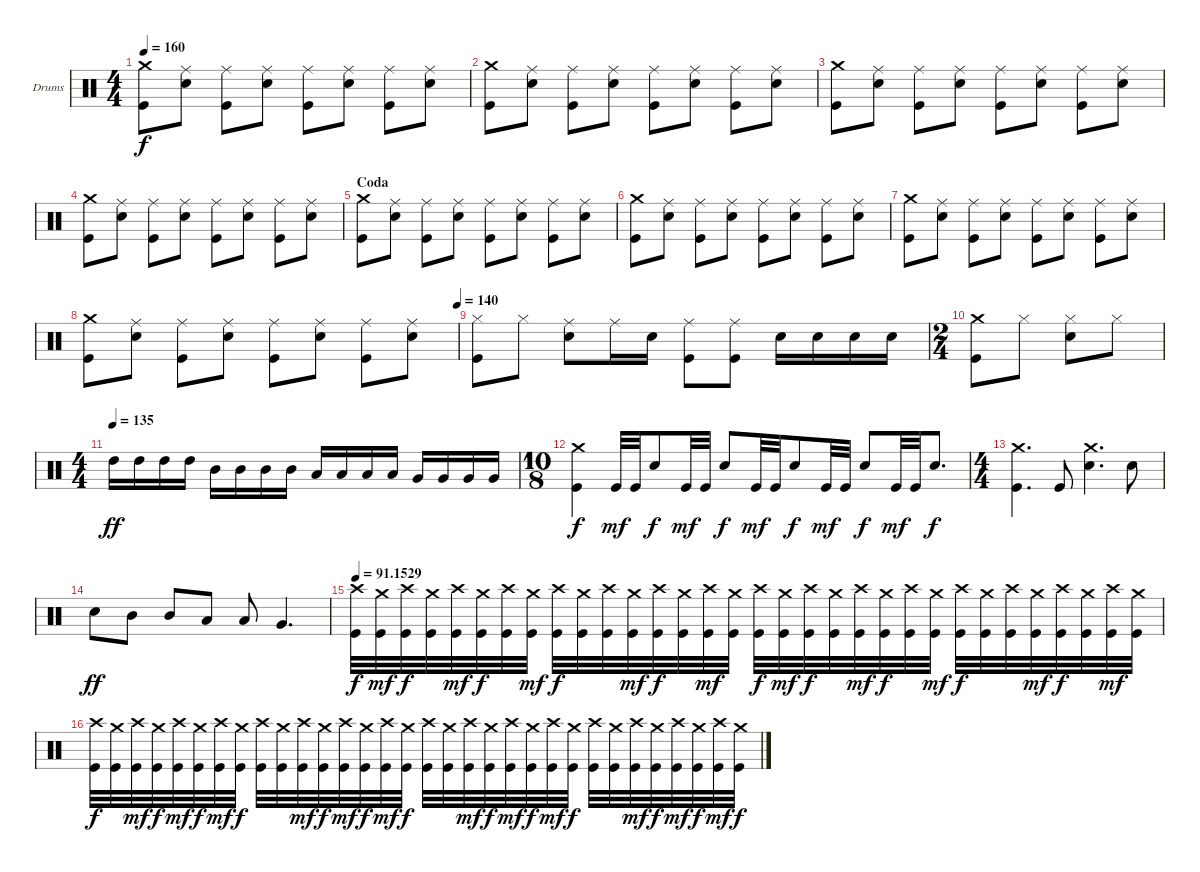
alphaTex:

\bracketExtendMode groupsimilarinstruments
\firstSystemTrackNameOrientation horizontal
\otherSystemsTrackNameOrientation horizontal
\track ("Drums" "Drums") {instrument percussion}
\staff {score}
\articulation defaults
\ts (4 4)
\tempo 160
\clef neutral
\ks c
("Crash medium (hit)" "Kick (hit)").8{dy f} ("Ride (middle)" "Snare (hit) 2").8 ("Ride (middle)" "Kick (hit)").8 ("Ride (middle)" "Snare (hit) 2").8 ("Ride (middle)" "Kick (hit)").8 ("Ride (middle)" "Snare (hit) 2").8 ("Ride (middle)" "Kick (hit)").8 ("Ride (middle)" "Snare (hit) 2").8 |
("Crash medium (hit)" "Kick (hit)").8 ("Ride (middle)" "Snare (hit) 2").8 ("Ride (middle)" "Kick (hit)").8 ("Ride (middle)" "Snare (hit) 2").8 ("Ride (middle)" "Kick (hit)").8 ("Ride (middle)" "Snare (hit) 2").8 ("Ride (middle)" "Kick (hit)").8 ("Ride (middle)" "Snare (hit) 2").8 |
("Crash medium (hit)" "Kick (hit)").8 ("Ride (middle)" "Snare (hit) 2").8 ("Ride (middle)" "Kick (hit)").8 ("Ride (middle)" "Snare (hit) 2").8 ("Ride (middle)" "Kick (hit)").8 ("Ride (middle)" "Snare (hit) 2").8 ("Ride (middle)" "Kick (hit)").8 ("Ride (middle)" "Snare (hit) 2").8 |
("Crash medium (hit)" "Kick (hit)").8 ("Ride (middle)" "Snare (hit) 2").8 ("Ride (middle)" "Kick (hit)").8 ("Ride (middle)" "Snare (hit) 2").8 ("Ride (middle)" "Kick (hit)").8 ("Ride (middle)" "Snare (hit) 2").8 ("Ride (middle)" "Kick (hit)").8 ("Ride (middle)" "Snare (hit) 2").8 |
\section ("" "Coda")
("Crash medium (hit)" "Kick (hit)").8 ("Ride (middle)" "Snare (hit) 2").8 ("Ride (middle)" "Kick (hit)").8 ("Ride (middle)" "Snare (hit) 2").8 ("Ride (middle)" "Kick (hit)").8 ("Ride (middle)" "Snare (hit) 2").8 ("Ride (middle)" "Kick (hit)").8 ("Ride (middle)" "Snare (hit) 2").8 |
("Crash medium (hit)" "Kick (hit)").8 ("Ride (middle)" "Snare (hit) 2").8 ("Ride (middle)" "Kick (hit)").8 ("Ride (middle)" "Snare (hit) 2").8 ("Ride (middle)" "Kick (hit)").8 ("Ride (middle)" "Snare (hit) 2").8 ("Ride (middle)" "Kick (hit)").8 ("Ride (middle)" "Snare (hit) 2").8 |
("Crash medium (hit)" "Kick (hit)").8 ("Ride (middle)" "Snare (hit) 2").8 ("Ride (middle)" "Kick (hit)").8 ("Ride (middle)" "Snare (hit) 2").8 ("Ride (middle)" "Kick (hit)").8 ("Ride (middle)" "Snare (hit) 2").8 ("Ride (middle)" "Kick (hit)").8 ("Ride (middle)" "Snare (hit) 2").8 |
\tempo (140 1)
("Crash medium (hit)" "Kick (hit)").8 ("Ride (middle)" "Snare (hit) 2").8 ("Ride (middle)" "Kick (hit)").8 ("Ride (middle)" "Snare (hit) 2").8 ("Ride (middle)" "Kick (hit)").8 ("Ride (middle)" "Snare (hit) 2").8 ("Ride (middle)" "Kick (hit)").8 ("Ride (middle)" "Snare (hit) 2").8 |
("Hi-Hat (closed)" "Kick (hit)").8 "Hi-Hat (closed)".8 ("Snare (hit) 2" "Ride (middle)").8 "Ride (middle)".16 "Snare (hit) 2".16 ("Kick (hit)" "Ride (middle)").8 ("Kick (hit)" "Ride (middle)").8 "Snare (hit) 2".16 "Snare (hit) 2".16 "Snare (hit) 2".16 "Snare (hit) 2".16 |
\ts (2 4)
("Crash medium (hit)" "Kick (hit)").8 "Hi-Hat (closed)".8 ("Hi-Hat (closed)" "Snare (hit) 2").8 "Hi-Hat (closed)".8 |
\ts (4 4)
\tempo (135)
"High Tom (hit)".16{dy ff} "High Tom (hit)".16 "High Tom (hit)".16 "High Tom (hit)".16 "Mid Tom (hit)".16 "Mid Tom (hit)".16 "Mid Tom (hit)".16 "Mid Tom (hit)".16 "Low Tom (hit)".16 "Low Tom (hit)".16 "Low Tom (hit)".16 "Low Tom (hit)".16 "Very Low Tom (hit)".16 "Very Low Tom (hit)".16 "Very Low Tom (hit)".16 "Very Low Tom (hit)".16 |
\ts (10 8)
("Crash medium (hit)" "Kick (hit)").4{dy f} "Kick (hit)".32{dy mf} "Kick (hit)".32 "Snare (hit) 2".8{dy f} "Kick (hit)".32{dy mf} "Kick (hit)".32 "Snare (hit) 2".8{dy f} "Kick (hit)".32{dy mf} "Kick (hit)".32 "Snare (hit) 2".8{dy f} "Kick (hit)".32{dy mf} "Kick (hit)".32 "Snare (hit) 2".8{dy f} "Kick (hit)".32{dy mf} "Kick (hit)".32 "Snare (hit) 2".8{d dy f} |
\ts (4 4)
("Crash medium (hit)" "Kick (hit)").4{d} "Kick (hit)".8 ("Snare (hit) 2" "Crash medium (hit)").4{d} "Snare (hit) 2".8 |
"Snare (hit) 2".8{dy ff} "Mid Tom (hit)".8 "Mid Tom (hit)".8 "Low Tom (hit)".8 "Low Tom (hit)".8 "Very Low Tom (hit)".4{d} |
\tempo
91.1529 ("Kick (hit)" "Crash high (hit)").32{dy f} ("Kick (hit)" "Crash medium (hit)").32{dy mf} ("Kick (hit)" "Crash high (hit)").32{dy f} ("Kick (hit)" "Crash medium (hit)").32 ("Kick (hit)" "Crash high (hit)").32{dy mf} ("Kick (hit)" "Crash medium (hit)").32{dy f} ("Kick (hit)" "Crash high (hit)").32 ("Kick (hit)" "Crash medium (hit)").32{dy mf} ("Kick (hit)" "Crash high (hit)").32{dy f} ("Kick (hit)" "Crash medium (hit)").32 ("Kick (hit)" "Crash high (hit)").32 ("Kick (hit)" "Crash medium (hit)").32{dy mf} ("Kick (hit)" "Crash high (hit)").32{dy f} ("Kick (hit)" "Crash medium (hit)").32 ("Kick (hit)" "Crash high (hit)").32{dy mf} ("Kick (hit)" "Crash medium (hit)").32 ("Kick (hit)" "Crash high (hit)").32{dy f} ("Kick (hit)" "Crash medium (hit)").32{dy mf} ("Kick (hit)" "Crash high (hit)").32{dy f} ("Kick (hit)" "Crash medium (hit)").32 ("Kick (hit)" "Crash high (hit)").32{dy mf} ("Kick (hit)" "Crash medium (hit)").32{dy f} ("Kick (hit)" "Crash high (hit)").32 ("Kick (hit)" "Crash medium (hit)").32{dy mf} ("Kick (hit)" "Crash high (hit)").32{dy f} ("Kick (hit)" "Crash medium (hit)").32 ("Kick (hit)" "Crash high (hit)").32 ("Kick (hit)" "Crash medium (hit)").32{dy mf} ("Kick (hit)" "Crash high (hit)").32{dy f} ("Kick (hit)" "Crash medium (hit)").32 ("Kick (hit)" "Crash high (hit)").32{dy mf} ("Kick (hit)" "Crash medium (hit)").32 |
("Kick (hit)" "Crash high (hit)").32{dy f} ("Kick (hit)" "Crash medium (hit)").32 ("Kick (hit)" "Crash high (hit)").32{dy mf} ("Kick (hit)" "Crash medium (hit)").32{dy f} ("Kick (hit)" "Crash high (hit)").32{dy mf} ("Kick (hit)" "Crash medium (hit)").32{dy f} ("Kick (hit)" "Crash high (hit)").32{dy mf} ("Kick (hit)" "Crash medium (hit)").32{dy f} ("Kick (hit)" "Crash high (hit)").32 ("Kick (hit)" "Crash medium (hit)").32 ("Kick (hit)" "Crash high (hit)").32{dy mf} ("Kick (hit)" "Crash medium (hit)").32{dy f} ("Kick (hit)" "Crash high (hit)").32{dy mf} ("Kick (hit)" "Crash medium (hit)").32{dy f} ("Kick (hit)" "Crash high (hit)").32{dy mf} ("Kick (hit)" "Crash medium (hit)").32{dy f} ("Kick (hit)" "Crash high (hit)").32 ("Kick (hit)" "Crash medium (hit)").32 ("Kick (hit)" "Crash high (hit)").32{dy mf} ("Kick (hit)" "Crash medium (hit)").32{dy f} ("Kick (hit)" "Crash high (hit)").32{dy mf} ("Kick (hit)" "Crash medium (hit)").32{dy f} ("Kick (hit)" "Crash high (hit)").32{dy mf} ("Kick (hit)" "Crash medium (hit)").32{dy f} ("Kick (hit)" "Crash high (hit)").32 ("Kick (hit)" "Crash medium (hit)").32 ("Kick (hit)" "Crash high (hit)").32{dy mf} ("Kick (hit)" "Crash medium (hit)").32{dy f} ("Kick (hit)" "Crash high (hit)").32{dy mf} ("Kick (hit)" "Crash medium (hit)").32{dy f} ("Kick (hit)" "Crash high (hit)").32{dy mf} ("Kick (hit)" "Crash medium (hit)").32{dy f}
